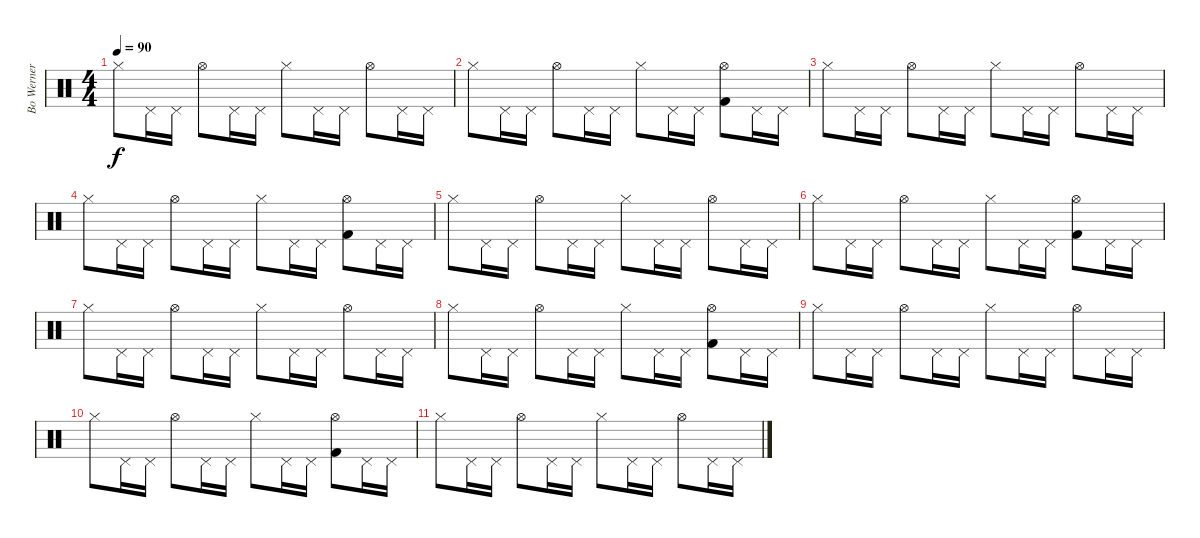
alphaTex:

\track ("Bo Werner" "Bo Werner") {instrument percussion}
\staff {score}
\articulation defaults
\ts (4 4)
\tempo 90
\clef neutral
\ks c "Hi-Hat (closed)".8{dy f} "Pedal Hi-Hat (hit)".16 "Pedal Hi-Hat (hit)".16 "Hi-Hat (open)".8 "Pedal Hi-Hat (hit)".16 "Pedal Hi-Hat (hit)".16 "Hi-Hat (closed)".8 "Pedal Hi-Hat (hit)".16 "Pedal Hi-Hat (hit)".16 "Hi-Hat (open)".8 "Pedal Hi-Hat (hit)".16 "Pedal Hi-Hat (hit)".16
|
"Hi-Hat (closed)".8 "Pedal Hi-Hat (hit)".16 "Pedal Hi-Hat (hit)".16 "Hi-Hat (open)".8 "Pedal Hi-Hat (hit)".16 "Pedal Hi-Hat (hit)".16 "Hi-Hat (closed)".8 "Pedal Hi-Hat (hit)".16 "Pedal Hi-Hat (hit)".16 ("Hi-Hat (open)" "Kick (hit) 2").8 "Pedal Hi-Hat (hit)".16 "Pedal Hi-Hat (hit)".16 |
"Hi-Hat (closed)".8 "Pedal Hi-Hat (hit)".16 "Pedal Hi-Hat (hit)".16 "Hi-Hat (open)".8 "Pedal Hi-Hat (hit)".16 "Pedal Hi-Hat (hit)".16 "Hi-Hat (closed)".8 "Pedal Hi-Hat (hit)".16 "Pedal Hi-Hat (hit)".16 "Hi-Hat (open)".8 "Pedal Hi-Hat (hit)".16 "Pedal Hi-Hat (hit)".16 |
"Hi-Hat (closed)".8 "Pedal Hi-Hat (hit)".16 "Pedal Hi-Hat (hit)".16 "Hi-Hat (open)".8 "Pedal Hi-Hat (hit)".16 "Pedal Hi-Hat (hit)".16 "Hi-Hat (closed)".8 "Pedal Hi-Hat (hit)".16 "Pedal Hi-Hat (hit)".16 ("Hi-Hat (open)" "Kick (hit) 2").8 "Pedal Hi-Hat (hit)".16 "Pedal Hi-Hat (hit)".16 |
"Hi-Hat (closed)".8 "Pedal Hi-Hat (hit)".16 "Pedal Hi-Hat (hit)".16 "Hi-Hat (open)".8 "Pedal Hi-Hat (hit)".16 "Pedal Hi-Hat (hit)".16 "Hi-Hat (closed)".8 "Pedal Hi-Hat (hit)".16 "Pedal Hi-Hat (hit)".16 "Hi-Hat (open)".8 "Pedal Hi-Hat (hit)".16 "Pedal Hi-Hat (hit)".16 |
"Hi-Hat (closed)".8 "Pedal Hi-Hat (hit)".16 "Pedal Hi-Hat (hit)".16 "Hi-Hat (open)".8 "Pedal Hi-Hat (hit)".16 "Pedal Hi-Hat (hit)".16 "Hi-Hat (closed)".8 "Pedal Hi-Hat (hit)".16 "Pedal Hi-Hat (hit)".16 ("Hi-Hat (open)" "Kick (hit) 2").8 "Pedal Hi-Hat (hit)".16 "Pedal Hi-Hat (hit)".16 |
"Hi-Hat (closed)".8 "Pedal Hi-Hat (hit)".16 "Pedal Hi-Hat (hit)".16 "Hi-Hat (open)".8 "Pedal Hi-Hat (hit)".16 "Pedal Hi-Hat (hit)".16 "Hi-Hat (closed)".8 "Pedal Hi-Hat (hit)".16 "Pedal Hi-Hat (hit)".16 "Hi-Hat (open)".8 "Pedal Hi-Hat (hit)".16 "Pedal Hi-Hat (hit)".16 |
"Hi-Hat (closed)".8 "Pedal Hi-Hat (hit)".16 "Pedal Hi-Hat (hit)".16 "Hi-Hat (open)".8 "Pedal Hi-Hat (hit)".16 "Pedal Hi-Hat (hit)".16 "Hi-Hat (closed)".8 "Pedal Hi-Hat (hit)".16 "Pedal Hi-Hat (hit)".16 ("Hi-Hat (open)" "Kick (hit) 2").8 "Pedal Hi-Hat (hit)".16 "Pedal Hi-Hat (hit)".16 |
"Hi-Hat (closed)".8 "Pedal Hi-Hat (hit)".16 "Pedal Hi-Hat (hit)".16 "Hi-Hat (open)".8 "Pedal Hi-Hat (hit)".16 "Pedal Hi-Hat (hit)".16 "Hi-Hat (closed)".8 "Pedal Hi-Hat (hit)".16 "Pedal Hi-Hat (hit)".16 "Hi-Hat (open)".8 "Pedal Hi-Hat (hit)".16 "Pedal Hi-Hat (hit)".16 |
"Hi-Hat (closed)".8 "Pedal Hi-Hat (hit)".16 "Pedal Hi-Hat (hit)".16 "Hi-Hat (open)".8 "Pedal Hi-Hat (hit)".16 "Pedal Hi-Hat (hit)".16 "Hi-Hat (closed)".8 "Pedal Hi-Hat (hit)".16 "Pedal Hi-Hat (hit)".16 ("Hi-Hat (open)" "Kick (hit) 2").8 "Pedal Hi-Hat (hit)".16 "Pedal Hi-Hat (hit)".16 |
"Hi-Hat (closed)".8 "Pedal Hi-Hat (hit)".16 "Pedal Hi-Hat (hit)".16 "Hi-Hat (open)".8 "Pedal Hi-Hat (hit)".16 "Pedal Hi-Hat (hit)".16 "Hi-Hat (closed)".8 "Pedal Hi-Hat (hit)".16 "Pedal Hi-Hat (hit)".16 "Hi-Hat (open)".8 "Pedal Hi-Hat (hit)".16 "Pedal Hi-Hat (hit)".16
